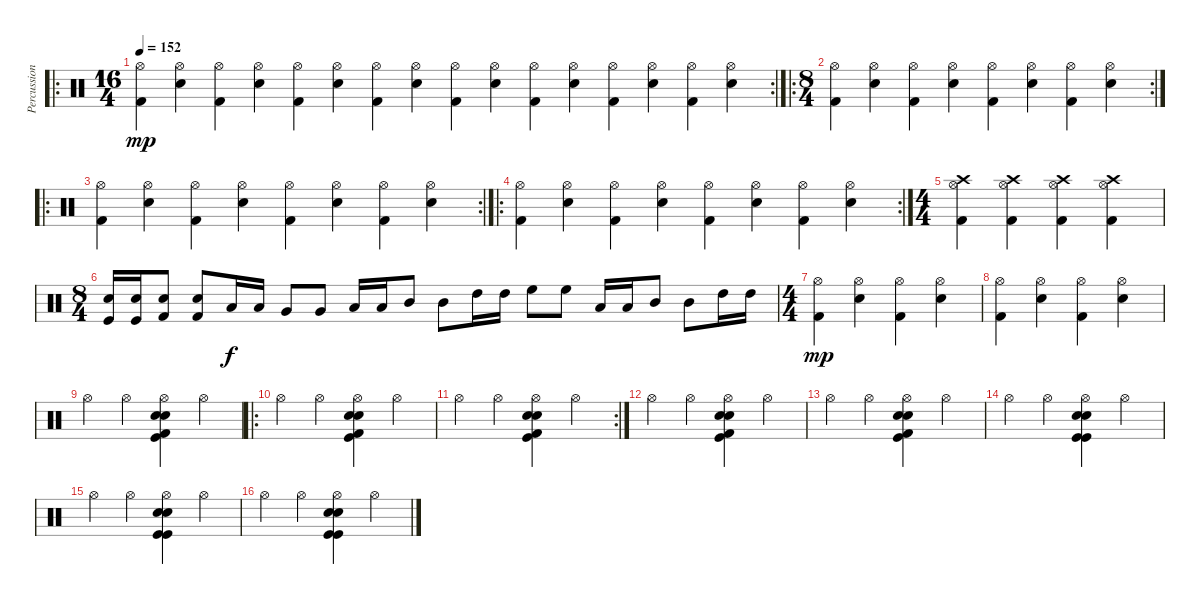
\track ("Percussion" "Percussion") {instrument percussion}
\staff {score}
\articulation defaults
\ro
\rc 2
\ts (16 4)
\tempo 152
\clef neutral
\ks c
("Hi-Hat (open)" "Kick (hit) 2").4{dy mp} ("Hi-Hat (open)" "Snare (hit) 2").4 ("Hi-Hat (open)" "Kick (hit) 2").4 ("Hi-Hat (open)" "Snare (hit) 2").4 ("Hi-Hat (open)" "Kick (hit) 2").4 ("Hi-Hat (open)" "Snare (hit) 2").4 ("Hi-Hat (open)" "Kick (hit) 2").4 ("Hi-Hat (open)" "Snare (hit) 2").4 ("Hi-Hat (open)" "Kick (hit) 2").4 ("Hi-Hat (open)" "Snare (hit) 2").4 ("Hi-Hat (open)" "Kick (hit) 2").4 ("Hi-Hat (open)" "Snare (hit) 2").4 ("Hi-Hat (open)" "Kick (hit) 2").4 ("Hi-Hat (open)" "Snare (hit) 2").4 ("Hi-Hat (open)" "Kick (hit) 2").4 ("Hi-Hat (open)" "Snare (hit) 2").4 |
\ro
\rc 2
\ts (8 4)
("Hi-Hat (open)" "Kick (hit) 2").4 ("Hi-Hat (open)" "Snare (hit) 2").4 ("Hi-Hat (open)" "Kick (hit) 2").4 ("Hi-Hat (open)" "Snare (hit) 2").4 ("Hi-Hat (open)" "Kick (hit) 2").4 ("Hi-Hat (open)" "Snare (hit) 2").4 ("Hi-Hat (open)" "Kick (hit) 2").4 ("Hi-Hat (open)" "Snare (hit) 2").4 |
\ro
\rc 2
("Hi-Hat (open)" "Kick (hit) 2").4 ("Hi-Hat (open)" "Snare (hit) 2").4 ("Hi-Hat (open)" "Kick (hit) 2").4 ("Hi-Hat (open)" "Snare (hit) 2").4 ("Hi-Hat (open)" "Kick (hit) 2").4 ("Hi-Hat (open)" "Snare (hit) 2").4 ("Hi-Hat (open)" "Kick (hit) 2").4 ("Hi-Hat (open)" "Snare (hit) 2").4 |
\ro
\rc 2
("Hi-Hat (open)" "Kick (hit) 2").4 ("Hi-Hat (open)" "Snare (hit) 2").4 ("Hi-Hat (open)" "Kick (hit) 2").4 ("Hi-Hat (open)" "Snare (hit) 2").4 ("Hi-Hat (open)" "Kick (hit) 2").4 ("Hi-Hat (open)" "Snare (hit) 2").4 ("Hi-Hat (open)" "Kick (hit) 2").4 ("Hi-Hat (open)" "Snare (hit) 2").4 |
\ts (4 4)
("Hi-Hat (open)" "Crash high (hit)" "Kick (hit) 2").4 ("Hi-Hat (open)" "Crash high (hit)" "Kick (hit) 2").4 ("Hi-Hat (open)" "Crash high (hit)" "Kick (hit) 2").4 ("Hi-Hat (open)" "Crash high (hit)" "Kick (hit) 2").4 |
\ts (8 4)
("Kick (hit)" "Snare (hit) 2").16 ("Kick (hit)" "Snare (hit) 2").16 ("Kick (hit) 2" "Electric Snare (hit)").8 ("Kick (hit) 2" "Electric Snare (hit)").8 "Low Floor Tom (hit)".16{dy f} "Low Floor Tom (hit)".16 "Very Low Tom (hit)".8 "Very Low Tom (hit)".8 "Low Tom (hit)".16 "Low Tom (hit)".16 "Mid Tom (hit)".8 "Mid Tom (hit)".8 "High Tom (hit)".16 "High Tom (hit)".16 "High Floor Tom (hit)".8 "High Floor Tom (hit)".8 "Low Tom (hit)".16 "Low Tom (hit)".16 "Mid Tom (hit)".8 "Mid Tom (hit)".8 "High Tom (hit)".16 "High Tom (hit)".16 |
\ts (4 4)
("Hi-Hat (open)" "Kick (hit) 2").4{dy mp} ("Hi-Hat (open)" "Snare (hit) 2").4 ("Hi-Hat (open)" "Kick (hit) 2").4 ("Hi-Hat (open)" "Snare (hit) 2").4 |
("Hi-Hat (open)" "Kick (hit) 2").4 ("Hi-Hat (open)" "Snare (hit) 2").4 ("Hi-Hat (open)" "Kick (hit) 2").4 ("Hi-Hat (open)" "Snare (hit) 2").4 |
"Hi-Hat (open)".4 "Hi-Hat (open)".4 ("Hi-Hat (open)" "Kick (hit)" "Snare (hit) 2" "Electric Snare (hit)" "Kick (hit) 2").4 "Hi-Hat (open)".4 |
\ro "Hi-Hat (open)".4 "Hi-Hat (open)".4
("Hi-Hat (open)" "Kick (hit)" "Snare (hit) 2" "Electric Snare (hit)" "Kick (hit) 2").4 "Hi-Hat (open)".4 |
\rc 2 "Hi-Hat (open)".4 "Hi-Hat (open)".4
("Hi-Hat (open)" "Kick (hit)" "Snare (hit) 2" "Electric Snare (hit)" "Kick (hit) 2").4 "Hi-Hat (open)".4 |
"Hi-Hat (open)".4 "Hi-Hat (open)".4 ("Hi-Hat (open)" "Kick (hit)" "Snare (hit) 2" "Electric Snare (hit)" "Kick (hit) 2").4 "Hi-Hat (open)".4 |
"Hi-Hat (open)".4 "Hi-Hat (open)".4 ("Hi-Hat (open)" "Kick (hit)" "Snare (hit) 2" "Electric Snare (hit)" "Kick (hit) 2").4 "Hi-Hat (open)".4 |
"Hi-Hat (open)".4 "Hi-Hat (open)".4 ("Hi-Hat (open)" "Kick (hit)" "Snare (hit) 2" "Electric Snare (hit)" "Kick (hit)").4 "Hi-Hat (open)".4 |
"Hi-Hat (open)".4 "Hi-Hat (open)".4 ("Hi-Hat (open)" "Kick (hit)" "Snare (hit) 2" "Electric Snare (hit)" "Kick (hit)").4 "Hi-Hat (open)".4 |
"Hi-Hat (open)".4 "Hi-Hat (open)".4 ("Hi-Hat (open)" "Kick (hit)" "Snare (hit) 2" "Electric Snare (hit)" "Kick (hit)").4 "Hi-Hat (open)".4
